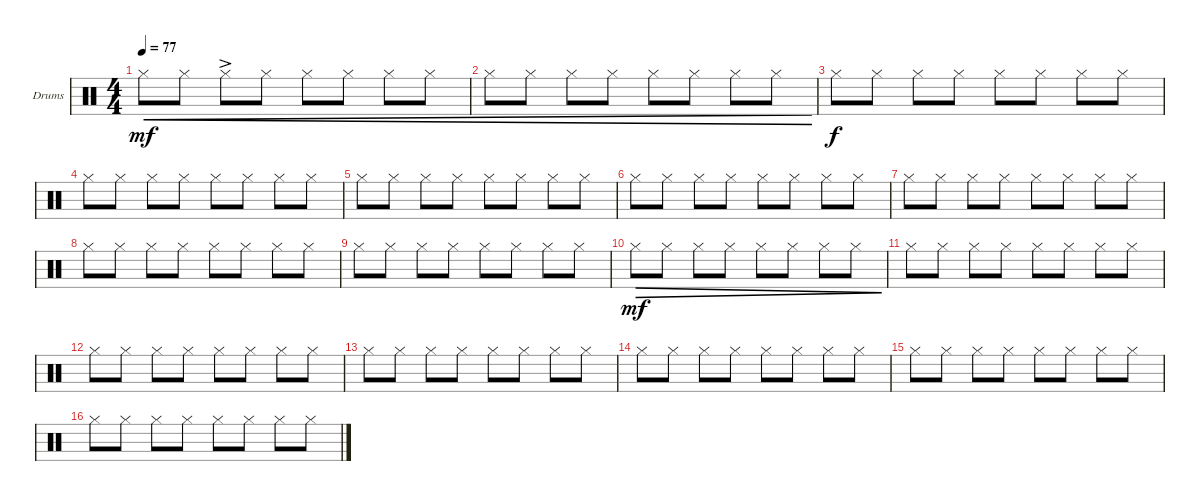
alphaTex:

\bracketExtendMode groupsimilarinstruments
\firstSystemTrackNameOrientation horizontal
\otherSystemsTrackNameOrientation horizontal
\track ("Drumkit Гурьянов" "Drums") {instrument percussion}
\staff {score}
\articulation defaults
\ts (4 4)
\tempo 77
\clef neutral
\scale
0.333333
\ks c "Hi-Hat (closed)".8{cre dy mf} "Hi-Hat (closed)".8{cre} "Hi-Hat (closed)"{ac}.8{cre} "Hi-Hat (closed)".8{cre} "Hi-Hat (closed)".8{cre} "Hi-Hat (closed)".8{cre} "Hi-Hat (closed)".8{cre} "Hi-Hat (closed)".8{cre}
|
\scale
0.333333 "Hi-Hat (closed)".8{cre} "Hi-Hat (closed)".8{cre} "Hi-Hat (closed)".8{cre} "Hi-Hat (closed)".8{cre} "Hi-Hat (closed)".8{cre} "Hi-Hat (closed)".8{cre} "Hi-Hat (closed)".8{cre} "Hi-Hat (closed)".8{cre} |
\scale
0.333333 "Hi-Hat (closed)".8{dy f} "Hi-Hat (closed)".8 "Hi-Hat (closed)".8 "Hi-Hat (closed)".8 "Hi-Hat (closed)".8 "Hi-Hat (closed)".8 "Hi-Hat (closed)".8 "Hi-Hat (closed)".8 |
\scale
0.333333 "Hi-Hat (closed)".8 "Hi-Hat (closed)".8 "Hi-Hat (closed)".8 "Hi-Hat (closed)".8 "Hi-Hat (closed)".8 "Hi-Hat (closed)".8 "Hi-Hat (closed)".8 "Hi-Hat (closed)".8 |
\scale
0.333333 "Hi-Hat (closed)".8 "Hi-Hat (closed)".8 "Hi-Hat (closed)".8 "Hi-Hat (closed)".8 "Hi-Hat (closed)".8 "Hi-Hat (closed)".8 "Hi-Hat (closed)".8 "Hi-Hat (closed)".8 |
\scale
0.333333 "Hi-Hat (closed)".8 "Hi-Hat (closed)".8 "Hi-Hat (closed)".8 "Hi-Hat (closed)".8 "Hi-Hat (closed)".8 "Hi-Hat (closed)".8 "Hi-Hat (closed)".8 "Hi-Hat (closed)".8 |
\scale
0.333333 "Hi-Hat (closed)".8 "Hi-Hat (closed)".8 "Hi-Hat (closed)".8 "Hi-Hat (closed)".8 "Hi-Hat (closed)".8 "Hi-Hat (closed)".8 "Hi-Hat (closed)".8 "Hi-Hat (closed)".8 |
\scale
0.333333 "Hi-Hat (closed)".8 "Hi-Hat (closed)".8 "Hi-Hat (closed)".8 "Hi-Hat (closed)".8 "Hi-Hat (closed)".8 "Hi-Hat (closed)".8 "Hi-Hat (closed)".8 "Hi-Hat (closed)".8 |
\scale
0.333333 "Hi-Hat (closed)".8 "Hi-Hat (closed)".8 "Hi-Hat (closed)".8 "Hi-Hat (closed)".8 "Hi-Hat (closed)".8 "Hi-Hat (closed)".8 "Hi-Hat (closed)".8 "Hi-Hat (closed)".8 |
\scale
0.333333 "Hi-Hat (closed)".8{dec dy mf} "Hi-Hat (closed)".8{dec} "Hi-Hat (closed)".8{dec} "Hi-Hat (closed)".8{dec} "Hi-Hat (closed)".8{dec} "Hi-Hat (closed)".8{dec} "Hi-Hat (closed)".8{dec} "Hi-Hat (closed)".8{dec} |
\scale
0.333333 "Hi-Hat (closed)".8 "Hi-Hat (closed)".8 "Hi-Hat (closed)".8 "Hi-Hat (closed)".8 "Hi-Hat (closed)".8 "Hi-Hat (closed)".8 "Hi-Hat (closed)".8 "Hi-Hat (closed)".8 |
\scale
0.333333 "Hi-Hat (closed)".8 "Hi-Hat (closed)".8 "Hi-Hat (closed)".8 "Hi-Hat (closed)".8 "Hi-Hat (closed)".8 "Hi-Hat (closed)".8 "Hi-Hat (closed)".8 "Hi-Hat (closed)".8 |
\scale
0.333333 "Hi-Hat (closed)".8 "Hi-Hat (closed)".8 "Hi-Hat (closed)".8 "Hi-Hat (closed)".8 "Hi-Hat (closed)".8 "Hi-Hat (closed)".8 "Hi-Hat (closed)".8 "Hi-Hat (closed)".8 |
\scale
0.333333 "Hi-Hat (closed)".8 "Hi-Hat (closed)".8 "Hi-Hat (closed)".8 "Hi-Hat (closed)".8 "Hi-Hat (closed)".8 "Hi-Hat (closed)".8 "Hi-Hat (closed)".8 "Hi-Hat (closed)".8 |
\scale
0.333333 "Hi-Hat (closed)".8 "Hi-Hat (closed)".8 "Hi-Hat (closed)".8 "Hi-Hat (closed)".8 "Hi-Hat (closed)".8 "Hi-Hat (closed)".8 "Hi-Hat (closed)".8 "Hi-Hat (closed)".8 |
\scale
0.333333 "Hi-Hat (closed)".8 "Hi-Hat (closed)".8 "Hi-Hat (closed)".8 "Hi-Hat (closed)".8 "Hi-Hat (closed)".8 "Hi-Hat (closed)".8 "Hi-Hat (closed)".8 "Hi-Hat (closed)".8
